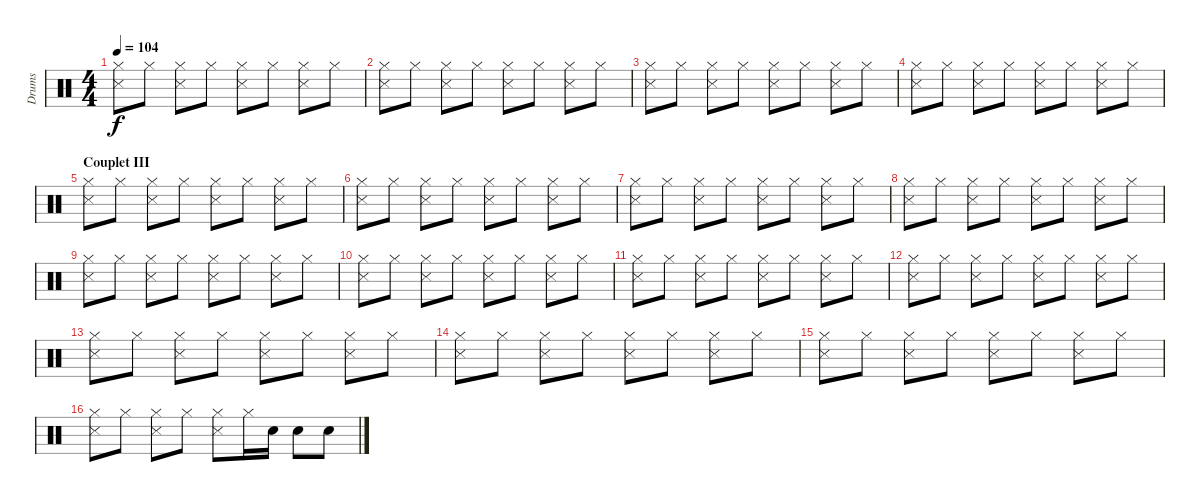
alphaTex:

\track ("Drums" "Drums") {instrument percussion}
\staff {score}
\articulation defaults
\ts (4 4)
\tempo 104
\clef neutral
\ks c
("Hi-Hat (closed)" "Snare (side stick) 3").8{dy f} "Hi-Hat (closed)".8 ("Hi-Hat (closed)" "Snare (side stick) 3").8 "Hi-Hat (closed)".8 ("Hi-Hat (closed)" "Snare (side stick) 3").8 "Hi-Hat (closed)".8 ("Hi-Hat (closed)" "Snare (side stick) 3").8 "Hi-Hat (closed)".8 |
("Hi-Hat (closed)" "Snare (side stick) 3").8 "Hi-Hat (closed)".8 ("Hi-Hat (closed)" "Snare (side stick) 3").8 "Hi-Hat (closed)".8 ("Hi-Hat (closed)" "Snare (side stick) 3").8 "Hi-Hat (closed)".8 ("Hi-Hat (closed)" "Snare (side stick) 3").8 "Hi-Hat (closed)".8 |
("Hi-Hat (closed)" "Snare (side stick) 3").8 "Hi-Hat (closed)".8 ("Hi-Hat (closed)" "Snare (side stick) 3").8 "Hi-Hat (closed)".8 ("Hi-Hat (closed)" "Snare (side stick) 3").8 "Hi-Hat (closed)".8 ("Hi-Hat (closed)" "Snare (side stick) 3").8 "Hi-Hat (closed)".8 |
("Hi-Hat (closed)" "Snare (side stick) 3").8 "Hi-Hat (closed)".8 ("Hi-Hat (closed)" "Snare (side stick) 3").8 "Hi-Hat (closed)".8 ("Hi-Hat (closed)" "Snare (side stick) 3").8 "Hi-Hat (closed)".8 ("Hi-Hat (closed)" "Snare (side stick) 3").8 "Hi-Hat (closed)".8 |
\section ("" "Couplet III")
("Hi-Hat (closed)" "Snare (side stick) 3").8 "Hi-Hat (closed)".8 ("Hi-Hat (closed)" "Snare (side stick) 3").8 "Hi-Hat (closed)".8 ("Hi-Hat (closed)" "Snare (side stick) 3").8 "Hi-Hat (closed)".8 ("Hi-Hat (closed)" "Snare (side stick) 3").8 "Hi-Hat (closed)".8 |
("Hi-Hat (closed)" "Snare (side stick) 3").8 "Hi-Hat (closed)".8 ("Hi-Hat (closed)" "Snare (side stick) 3").8 "Hi-Hat (closed)".8 ("Hi-Hat (closed)" "Snare (side stick) 3").8 "Hi-Hat (closed)".8 ("Hi-Hat (closed)" "Snare (side stick) 3").8 "Hi-Hat (closed)".8 |
("Hi-Hat (closed)" "Snare (side stick) 3").8 "Hi-Hat (closed)".8 ("Hi-Hat (closed)" "Snare (side stick) 3").8 "Hi-Hat (closed)".8 ("Hi-Hat (closed)" "Snare (side stick) 3").8 "Hi-Hat (closed)".8 ("Hi-Hat (closed)" "Snare (side stick) 3").8 "Hi-Hat (closed)".8 |
("Hi-Hat (closed)" "Snare (side stick) 3").8 "Hi-Hat (closed)".8 ("Hi-Hat (closed)" "Snare (side stick) 3").8 "Hi-Hat (closed)".8 ("Hi-Hat (closed)" "Snare (side stick) 3").8 "Hi-Hat (closed)".8 ("Hi-Hat (closed)" "Snare (side stick) 3").8 "Hi-Hat (closed)".8 |
("Hi-Hat (closed)" "Snare (side stick) 3").8 "Hi-Hat (closed)".8 ("Hi-Hat (closed)" "Snare (side stick) 3").8 "Hi-Hat (closed)".8 ("Hi-Hat (closed)" "Snare (side stick) 3").8 "Hi-Hat (closed)".8 ("Hi-Hat (closed)" "Snare (side stick) 3").8 "Hi-Hat (closed)".8 |
("Hi-Hat (closed)" "Snare (side stick) 3").8 "Hi-Hat (closed)".8 ("Hi-Hat (closed)" "Snare (side stick) 3").8 "Hi-Hat (closed)".8 ("Hi-Hat (closed)" "Snare (side stick) 3").8 "Hi-Hat (closed)".8 ("Hi-Hat (closed)" "Snare (side stick) 3").8 "Hi-Hat (closed)".8 |
("Hi-Hat (closed)" "Snare (side stick) 3").8 "Hi-Hat (closed)".8 ("Hi-Hat (closed)" "Snare (side stick) 3").8 "Hi-Hat (closed)".8 ("Hi-Hat (closed)" "Snare (side stick) 3").8 "Hi-Hat (closed)".8 ("Hi-Hat (closed)" "Snare (side stick) 3").8 "Hi-Hat (closed)".8 |
("Hi-Hat (closed)" "Snare (side stick) 3").8 "Hi-Hat (closed)".8 ("Hi-Hat (closed)" "Snare (side stick) 3").8 "Hi-Hat (closed)".8 ("Hi-Hat (closed)" "Snare (side stick) 3").8 "Hi-Hat (closed)".8 ("Hi-Hat (closed)" "Snare (side stick) 3").8 "Hi-Hat (closed)".8 |
("Hi-Hat (closed)" "Snare (side stick) 3").8 "Hi-Hat (closed)".8 ("Hi-Hat (closed)" "Snare (side stick) 3").8 "Hi-Hat (closed)".8 ("Hi-Hat (closed)" "Snare (side stick) 3").8 "Hi-Hat (closed)".8 ("Hi-Hat (closed)" "Snare (side stick) 3").8 "Hi-Hat (closed)".8 |
("Hi-Hat (closed)" "Snare (side stick) 3").8 "Hi-Hat (closed)".8 ("Hi-Hat (closed)" "Snare (side stick) 3").8 "Hi-Hat (closed)".8 ("Hi-Hat (closed)" "Snare (side stick) 3").8 "Hi-Hat (closed)".8 ("Hi-Hat (closed)" "Snare (side stick) 3").8 "Hi-Hat (closed)".8 |
("Hi-Hat (closed)" "Snare (side stick) 3").8 "Hi-Hat (closed)".8 ("Hi-Hat (closed)" "Snare (side stick) 3").8 "Hi-Hat (closed)".8 ("Hi-Hat (closed)" "Snare (side stick) 3").8 "Hi-Hat (closed)".8 ("Hi-Hat (closed)" "Snare (side stick) 3").8 "Hi-Hat (closed)".8 |
("Hi-Hat (closed)" "Snare (side stick) 3").8 "Hi-Hat (closed)".8 ("Hi-Hat (closed)" "Snare (side stick) 3").8 "Hi-Hat (closed)".8 ("Hi-Hat (closed)" "Snare (side stick) 3").8 "Hi-Hat (closed)".16 "Snare (hit) 2".16 "Snare (hit) 2".8 "Snare (hit) 2".8
